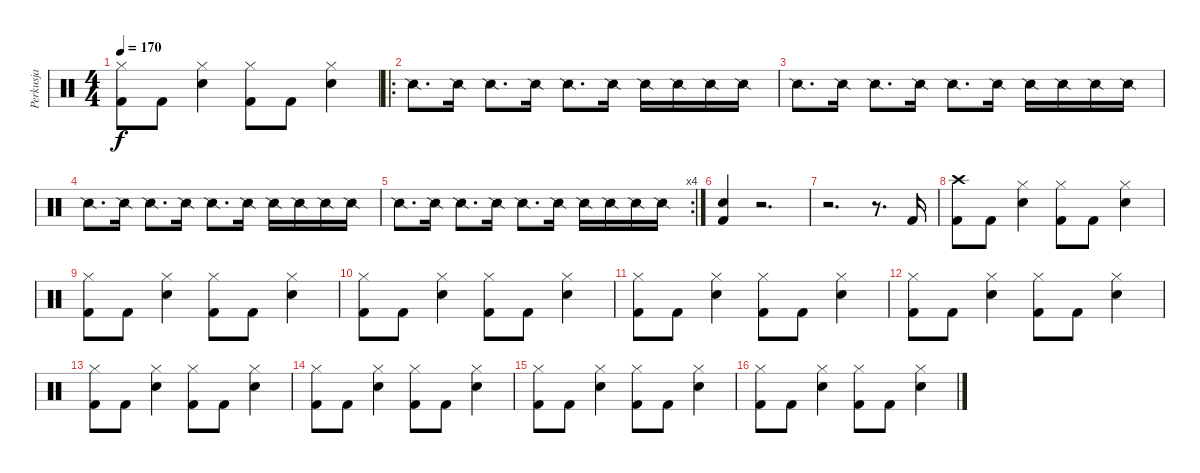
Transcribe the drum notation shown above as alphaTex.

\track ("Perkusja" "Perkusja") {instrument percussion}
\staff {score}
\articulation defaults
\ts (4 4)
\tempo 170
\clef neutral
\ks c
("Hi-Hat (closed)" "Kick (hit) 2").8{dy f} "Kick (hit) 2".8 ("Hi-Hat (closed)" "Electric Snare (hit)").4 ("Hi-Hat (closed)" "Kick (hit) 2").8 "Kick (hit) 2".8 ("Hi-Hat (closed)" "Electric Snare (hit)").4 |
\ro "Snare (side stick) 2".8{d} "Snare (side stick) 2".16 "Snare (side stick) 2".8{d} "Snare (side stick) 2".16 "Snare (side stick) 2".8{d} "Snare (side stick) 2".16 "Snare (side stick) 2".16 "Snare (side stick) 2".16 "Snare (side stick) 2".16 "Snare (side stick) 2".16
|
"Snare (side stick) 2".8{d} "Snare (side stick) 2".16 "Snare (side stick) 2".8{d} "Snare (side stick) 2".16 "Snare (side stick) 2".8{d} "Snare (side stick) 2".16 "Snare (side stick) 2".16 "Snare (side stick) 2".16 "Snare (side stick) 2".16 "Snare (side stick) 2".16 |
"Snare (side stick) 2".8{d} "Snare (side stick) 2".16 "Snare (side stick) 2".8{d} "Snare (side stick) 2".16 "Snare (side stick) 2".8{d} "Snare (side stick) 2".16 "Snare (side stick) 2".16 "Snare (side stick) 2".16 "Snare (side stick) 2".16 "Snare (side stick) 2".16 |
\rc 4 "Snare (side stick) 2".8{d} "Snare (side stick) 2".16 "Snare (side stick) 2".8{d} "Snare (side stick) 2".16 "Snare (side stick) 2".8{d} "Snare (side stick) 2".16 "Snare (side stick) 2".16 "Snare (side stick) 2".16 "Snare (side stick) 2".16 "Snare (side stick) 2".16
|
("Electric Snare (hit)" "Kick (hit) 2").4 r.2{d} |
r.2{d} r.8{d} "Kick (hit) 2".16 |
("Crash high (hit)" "Kick (hit) 2").8 "Kick (hit) 2".8 ("Hi-Hat (closed)" "Electric Snare (hit)").4 ("Hi-Hat (closed)" "Kick (hit) 2").8 "Kick (hit) 2".8 ("Hi-Hat (closed)" "Electric Snare (hit)").4 |
("Hi-Hat (closed)" "Kick (hit) 2").8 "Kick (hit) 2".8 ("Hi-Hat (closed)" "Electric Snare (hit)").4 ("Hi-Hat (closed)" "Kick (hit) 2").8 "Kick (hit) 2".8 ("Hi-Hat (closed)" "Electric Snare (hit)").4 |
("Hi-Hat (closed)" "Kick (hit) 2").8 "Kick (hit) 2".8 ("Hi-Hat (closed)" "Electric Snare (hit)").4 ("Hi-Hat (closed)" "Kick (hit) 2").8 "Kick (hit) 2".8 ("Hi-Hat (closed)" "Electric Snare (hit)").4 |
("Hi-Hat (closed)" "Kick (hit) 2").8 "Kick (hit) 2".8 ("Hi-Hat (closed)" "Electric Snare (hit)").4 ("Hi-Hat (closed)" "Kick (hit) 2").8 "Kick (hit) 2".8 ("Hi-Hat (closed)" "Electric Snare (hit)").4 |
("Hi-Hat (closed)" "Kick (hit) 2").8 "Kick (hit) 2".8 ("Hi-Hat (closed)" "Electric Snare (hit)").4 ("Hi-Hat (closed)" "Kick (hit) 2").8 "Kick (hit) 2".8 ("Hi-Hat (closed)" "Electric Snare (hit)").4 |
("Hi-Hat (closed)" "Kick (hit) 2").8 "Kick (hit) 2".8 ("Hi-Hat (closed)" "Electric Snare (hit)").4 ("Hi-Hat (closed)" "Kick (hit) 2").8 "Kick (hit) 2".8 ("Hi-Hat (closed)" "Electric Snare (hit)").4 |
("Hi-Hat (closed)" "Kick (hit) 2").8 "Kick (hit) 2".8 ("Hi-Hat (closed)" "Electric Snare (hit)").4 ("Hi-Hat (closed)" "Kick (hit) 2").8 "Kick (hit) 2".8 ("Hi-Hat (closed)" "Electric Snare (hit)").4 |
("Hi-Hat (closed)" "Kick (hit) 2").8 "Kick (hit) 2".8 ("Hi-Hat (closed)" "Electric Snare (hit)").4 ("Hi-Hat (closed)" "Kick (hit) 2").8 "Kick (hit) 2".8 ("Hi-Hat (closed)" "Electric Snare (hit)").4 |
("Hi-Hat (closed)" "Kick (hit) 2").8 "Kick (hit) 2".8 ("Hi-Hat (closed)" "Electric Snare (hit)").4 ("Hi-Hat (closed)" "Kick (hit) 2").8 "Kick (hit) 2".8 ("Hi-Hat (closed)" "Electric Snare (hit)").4
